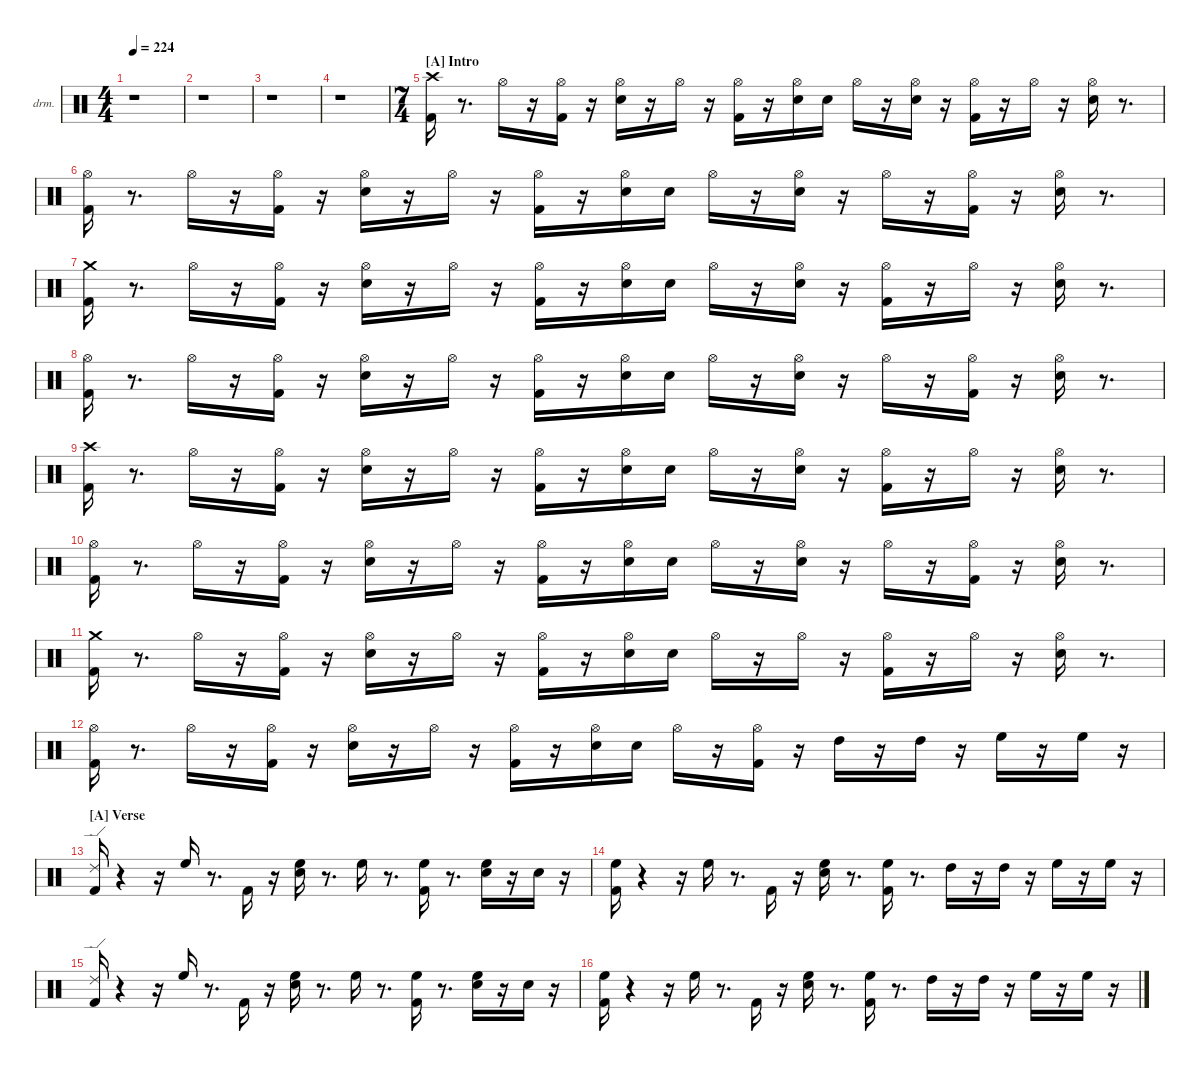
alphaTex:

\hideDynamics
\bracketExtendMode nobrackets
\firstSystemTrackNameOrientation horizontal
\otherSystemsTrackNameOrientation horizontal
\track ("Drums" "drm.") {instrument percussion}
\staff {score}
\articulation defaults
\ts (4 4)
\tempo 224
\clef neutral
\ks aminor
r.1{dy fff beam Down} |
r.1{beam Down} |
r.1{beam Down} |
r.1{beam Down} |
\ts (7 4)
\section ("A" "Intro")
("Kick (hit) 2" "Crash high (hit)"{acc #}).16{beam Down} r.8{d beam Down} "Hi-Hat (open)"{acc #}.16{dy f beam Down} r.16{beam Down} ("Kick (hit) 2" "Hi-Hat (open)"{acc #}).16{beam Down} r.16{beam Down} ("Snare (hit) 2" "Hi-Hat (open)"{acc #}).16{dy ff beam Down} r.16{beam Down} "Hi-Hat (open)"{acc #}.16{dy ppp beam Down} r.16{beam Down} ("Kick (hit) 2" "Hi-Hat (open)"{acc #}).16{dy ff beam Down} r.16{beam Down} ("Snare (hit) 2" "Hi-Hat (open)"{acc #}).16{dy f beam Down} "Snare (hit) 2".16{dy ppp beam Down} "Hi-Hat (open)"{acc #}.16{dy ff beam Down} r.16{beam Down} ("Snare (hit) 2" "Hi-Hat (open)"{acc #}).16{dy pp beam Down} r.16{beam Down} ("Kick (hit) 2" "Hi-Hat (open)"{acc #}).16{dy fff beam Down} r.16{beam Down} "Hi-Hat (open)"{acc #}.16{dy ppp beam Down} r.16{beam Down} ("Snare (hit) 2" "Hi-Hat (open)"{acc #}).16{dy fff beam Down} r.8{d beam Down} |
("Kick (hit) 2" "Hi-Hat (open)"{acc #}).16{beam Down} r.8{d beam Down} "Hi-Hat (open)"{acc #}.16{dy f beam Down} r.16{beam Down} ("Kick (hit) 2" "Hi-Hat (open)"{acc #}).16{beam Down} r.16{beam Down} ("Snare (hit) 2" "Hi-Hat (open)"{acc #}).16{dy fff beam Down} r.16{beam Down} "Hi-Hat (open)"{acc #}.16{dy ppp beam Down} r.16{beam Down} ("Kick (hit) 2" "Hi-Hat (open)"{acc #}).16{dy ff beam Down} r.16{beam Down} ("Snare (hit) 2" "Hi-Hat (open)"{acc #}).16{dy f beam Down} "Snare (hit) 2".16{dy ppp beam Down} "Hi-Hat (open)"{acc #}.16{dy ff beam Down} r.16{beam Down} ("Snare (hit) 2" "Hi-Hat (open)"{acc #}).16{beam Down} r.16{beam Down} "Hi-Hat (open)"{acc #}.16{dy f beam Down} r.16{beam Down} ("Kick (hit) 2" "Hi-Hat (open)"{acc #}).16{dy ff beam Down} r.16{beam Down} ("Snare (hit) 2" "Hi-Hat (open)"{acc #}).16{dy fff beam Down} r.8{d beam Down} |
("Kick (hit) 2" "Crash medium (hit)").16{beam Down} r.8{d beam Down} "Hi-Hat (open)"{acc #}.16{dy f beam Down} r.16{beam Down} ("Kick (hit) 2" "Hi-Hat (open)"{acc #}).16{beam Down} r.16{beam Down} ("Snare (hit) 2" "Hi-Hat (open)"{acc #}).16{dy ff beam Down} r.16{beam Down} "Hi-Hat (open)"{acc #}.16{dy ppp beam Down} r.16{beam Down} ("Kick (hit) 2" "Hi-Hat (open)"{acc #}).16{dy ff beam Down} r.16{beam Down} ("Snare (hit) 2" "Hi-Hat (open)"{acc #}).16{dy f beam Down} "Snare (hit) 2".16{dy ppp beam Down} "Hi-Hat (open)"{acc #}.16{dy ff beam Down} r.16{beam Down} ("Snare (hit) 2" "Hi-Hat (open)"{acc #}).16{dy pp beam Down} r.16{beam Down} ("Kick (hit) 2" "Hi-Hat (open)"{acc #}).16{dy fff beam Down} r.16{beam Down} "Hi-Hat (open)"{acc #}.16{dy ppp beam Down} r.16{beam Down} ("Snare (hit) 2" "Hi-Hat (open)"{acc #}).16{dy fff beam Down} r.8{d beam Down} |
("Kick (hit) 2" "Hi-Hat (open)"{acc #}).16{beam Down} r.8{d beam Down} "Hi-Hat (open)"{acc #}.16{dy f beam Down} r.16{beam Down} ("Kick (hit) 2" "Hi-Hat (open)"{acc #}).16{beam Down} r.16{beam Down} ("Snare (hit) 2" "Hi-Hat (open)"{acc #}).16{dy fff beam Down} r.16{beam Down} "Hi-Hat (open)"{acc #}.16{dy ppp beam Down} r.16{beam Down} ("Kick (hit) 2" "Hi-Hat (open)"{acc #}).16{dy ff beam Down} r.16{beam Down} ("Snare (hit) 2" "Hi-Hat (open)"{acc #}).16{dy f beam Down} "Snare (hit) 2".16{dy ppp beam Down} "Hi-Hat (open)"{acc #}.16{dy ff beam Down} r.16{beam Down} ("Snare (hit) 2" "Hi-Hat (open)"{acc #}).16{beam Down} r.16{beam Down} "Hi-Hat (open)"{acc #}.16{dy f beam Down} r.16{beam Down} ("Kick (hit) 2" "Hi-Hat (open)"{acc #}).16{dy ff beam Down} r.16{beam Down} ("Snare (hit) 2" "Hi-Hat (open)"{acc #}).16{dy fff beam Down} r.8{d beam Down} |
("Kick (hit) 2" "Crash high (hit)"{acc #}).16{beam Down} r.8{d beam Down} "Hi-Hat (open)"{acc #}.16{dy f beam Down} r.16{beam Down} ("Kick (hit) 2" "Hi-Hat (open)"{acc #}).16{beam Down} r.16{beam Down} ("Snare (hit) 2" "Hi-Hat (open)"{acc #}).16{dy ff beam Down} r.16{beam Down} "Hi-Hat (open)"{acc #}.16{dy ppp beam Down} r.16{beam Down} ("Kick (hit) 2" "Hi-Hat (open)"{acc #}).16{dy ff beam Down} r.16{beam Down} ("Snare (hit) 2" "Hi-Hat (open)"{acc #}).16{dy f beam Down} "Snare (hit) 2".16{dy ppp beam Down} "Hi-Hat (open)"{acc #}.16{dy ff beam Down} r.16{beam Down} ("Snare (hit) 2" "Hi-Hat (open)"{acc #}).16{dy pp beam Down} r.16{beam Down} ("Kick (hit) 2" "Hi-Hat (open)"{acc #}).16{dy fff beam Down} r.16{beam Down} "Hi-Hat (open)"{acc #}.16{dy ppp beam Down} r.16{beam Down} ("Snare (hit) 2" "Hi-Hat (open)"{acc #}).16{dy fff beam Down} r.8{d beam Down} |
("Kick (hit) 2" "Hi-Hat (open)"{acc #}).16{beam Down} r.8{d beam Down} "Hi-Hat (open)"{acc #}.16{dy f beam Down} r.16{beam Down} ("Kick (hit) 2" "Hi-Hat (open)"{acc #}).16{beam Down} r.16{beam Down} ("Snare (hit) 2" "Hi-Hat (open)"{acc #}).16{dy fff beam Down} r.16{beam Down} "Hi-Hat (open)"{acc #}.16{dy ppp beam Down} r.16{beam Down} ("Kick (hit) 2" "Hi-Hat (open)"{acc #}).16{dy ff beam Down} r.16{beam Down} ("Snare (hit) 2" "Hi-Hat (open)"{acc #}).16{dy f beam Down} "Snare (hit) 2".16{dy ppp beam Down} "Hi-Hat (open)"{acc #}.16{dy ff beam Down} r.16{beam Down} ("Snare (hit) 2" "Hi-Hat (open)"{acc #}).16{beam Down} r.16{beam Down} "Hi-Hat (open)"{acc #}.16{dy f beam Down} r.16{beam Down} ("Kick (hit) 2" "Hi-Hat (open)"{acc #}).16{dy ff beam Down} r.16{beam Down} ("Snare (hit) 2" "Hi-Hat (open)"{acc #}).16{dy fff beam Down} r.8{d beam Down} |
("Kick (hit) 2" "Crash medium (hit)").16{beam Down} r.8{d beam Down} "Hi-Hat (open)"{acc #}.16{dy f beam Down} r.16{beam Down} ("Kick (hit) 2" "Hi-Hat (open)"{acc #}).16{beam Down} r.16{beam Down} ("Snare (hit) 2" "Hi-Hat (open)"{acc #}).16{dy ff beam Down} r.16{beam Down} "Hi-Hat (open)"{acc #}.16{dy ppp beam Down} r.16{beam Down} ("Kick (hit) 2" "Hi-Hat (open)"{acc #}).16{dy ff beam Down} r.16{beam Down} ("Snare (hit) 2" "Hi-Hat (open)"{acc #}).16{dy f beam Down} "Snare (hit) 2".16{dy ppp beam Down} "Hi-Hat (open)"{acc #}.16{dy ff beam Down} r.16{beam Down} "Hi-Hat (open)"{acc #}.16{dy ppp beam Down} r.16{beam Down} ("Kick (hit) 2" "Hi-Hat (open)"{acc #}).16{dy ff beam Down} r.16{beam Down} "Hi-Hat (open)"{acc #}.16{dy ppp beam Down} r.16{beam Down} ("Snare (hit) 2" "Hi-Hat (open)"{acc #}).16{dy ff beam Down} r.8{d beam Down} |
("Kick (hit) 2" "Hi-Hat (open)"{acc #}).16{dy fff beam Down} r.8{d beam Down} "Hi-Hat (open)"{acc #}.16{dy f beam Down} r.16{beam Down} ("Kick (hit) 2" "Hi-Hat (open)"{acc #}).16{beam Down} r.16{beam Down} ("Snare (hit) 2" "Hi-Hat (open)"{acc #}).16{dy fff beam Down} r.16{beam Down} "Hi-Hat (open)"{acc #}.16{dy ppp beam Down} r.16{beam Down} ("Kick (hit) 2" "Hi-Hat (open)"{acc #}).16{dy ff beam Down} r.16{beam Down} ("Snare (hit) 2" "Hi-Hat (open)"{acc #}).16{dy f beam Down} "Snare (hit) 2".16{dy pp beam Down} "Hi-Hat (open)"{acc #}.16{dy ff beam Down} r.16{beam Down} ("Kick (hit) 2" "Hi-Hat (open)"{acc #}).16{beam Down} r.16{beam Down} "High Tom (hit)".16{dy fff beam Down} r.16{beam Down} "High Tom (hit)".16{dy ff beam Down} r.16{beam Down} "High Floor Tom (hit)".16{dy fff beam Down} r.16{beam Down} "High Floor Tom (hit)".16{dy ff beam Down} r.16{beam Down} |
\section ("A" "Verse")
("Kick (hit) 2" "Ride (edge) 2").16{dy fff beam Up} r.4{beam Up} r.16{beam Up} "High Floor Tom (hit)".16{dy mf beam Down} r.8{d beam Down} "Kick (hit) 2".16{dy f beam Down} r.16{beam Down} ("Snare (hit) 2" "High Floor Tom (hit)").16{dy fff beam Down} r.8{d beam Down} "High Floor Tom (hit)".16{beam Down} r.8{d beam Down} ("Kick (hit) 2" "High Floor Tom (hit)").16{dy ff beam Down} r.8{d beam Down} ("Snare (hit) 2" "High Floor Tom (hit)").16{dy f beam Down} r.16{beam Down} "Snare (hit) 2".16{dy mp beam Down} r.16{beam Down} |
("Kick (hit) 2" "High Floor Tom (hit)").16{dy fff beam Down} r.4{beam Down} r.16{beam Down} "High Floor Tom (hit)".16{dy mf beam Down} r.8{d beam Down} "Kick (hit) 2".16{dy f beam Down} r.16{beam Down} ("Snare (hit) 2" "High Floor Tom (hit)").16{dy fff beam Down} r.8{d beam Down} ("Kick (hit) 2" "High Floor Tom (hit)").16{dy ff beam Down} r.8{d beam Down} "High Tom (hit)".16{dy fff beam Down} r.16{beam Down} "High Tom (hit)".16{dy f beam Down} r.16{beam Down} "High Floor Tom (hit)".16{dy ff beam Down} r.16{beam Down} "High Floor Tom (hit)".16{dy f beam Down} r.16{beam Down} |
("Kick (hit) 2" "Ride (edge) 2").16{dy fff beam Up} r.4{beam Up} r.16{beam Up} "High Floor Tom (hit)".16{dy mf beam Down} r.8{d beam Down} "Kick (hit) 2".16{dy f beam Down} r.16{beam Down} ("Snare (hit) 2" "High Floor Tom (hit)").16{dy fff beam Down} r.8{d beam Down} "High Floor Tom (hit)".16{beam Down} r.8{d beam Down} ("Kick (hit) 2" "High Floor Tom (hit)").16{dy ff beam Down} r.8{d beam Down} ("Snare (hit) 2" "High Floor Tom (hit)").16{dy f beam Down} r.16{beam Down} "Snare (hit) 2".16{dy mp beam Down} r.16{beam Down} |
("Kick (hit) 2" "High Floor Tom (hit)").16{dy fff beam Down} r.4{beam Down} r.16{beam Down} "High Floor Tom (hit)".16{dy mf beam Down} r.8{d beam Down} "Kick (hit) 2".16{dy f beam Down} r.16{beam Down} ("Snare (hit) 2" "High Floor Tom (hit)").16{dy fff beam Down} r.8{d beam Down} ("Kick (hit) 2" "High Floor Tom (hit)").16{dy ff beam Down} r.8{d beam Down} "High Tom (hit)".16{dy fff beam Down} r.16{beam Down} "High Tom (hit)".16{dy f beam Down} r.16{beam Down} "High Floor Tom (hit)".16{dy ff beam Down} r.16{beam Down} "High Floor Tom (hit)".16{dy f beam Down} r.16{beam Down}
